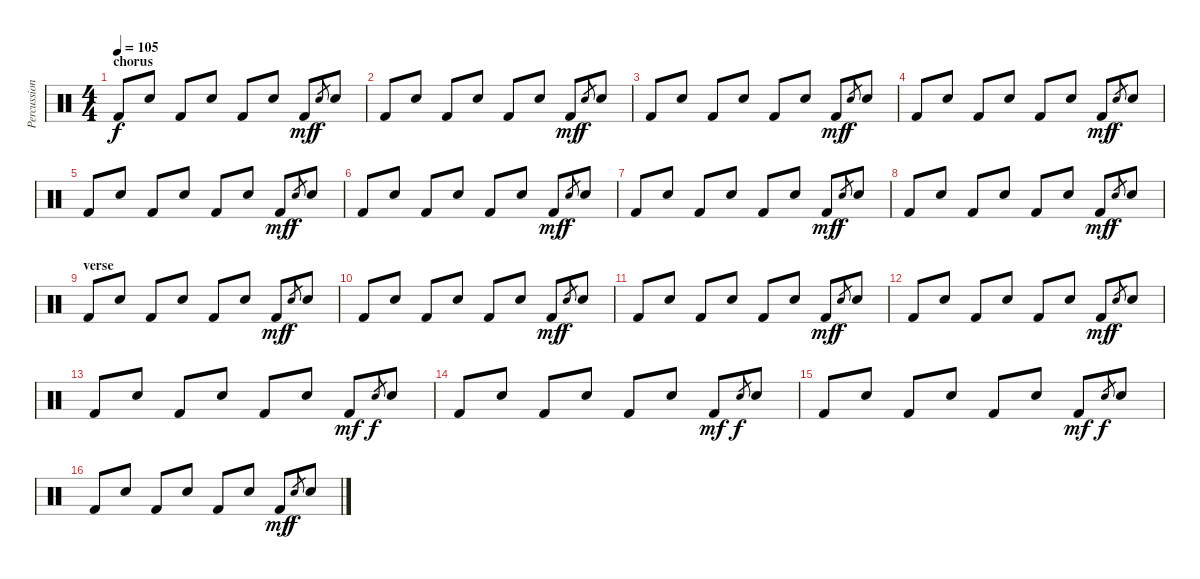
\track ("Percussion" "Percussion") {instrument percussion}
\staff {score}
\articulation defaults
\ts (4 4)
\section ("" "chorus")
\tempo 105
\clef neutral
\ks c "Kick (hit) 2".8{dy f} "Electric Snare (hit)".8 "Kick (hit) 2".8 "Electric Snare (hit)".8 "Kick (hit) 2".8 "Electric Snare (hit)".8 "Kick (hit) 2".8{dy mf} "Electric Snare (hit)".8{gr dy f} "Electric Snare (hit)".8
|
"Kick (hit) 2".8 "Electric Snare (hit)".8 "Kick (hit) 2".8 "Electric Snare (hit)".8 "Kick (hit) 2".8 "Electric Snare (hit)".8 "Kick (hit) 2".8{dy mf} "Electric Snare (hit)".8{gr dy f} "Electric Snare (hit)".8 |
"Kick (hit) 2".8 "Electric Snare (hit)".8 "Kick (hit) 2".8 "Electric Snare (hit)".8 "Kick (hit) 2".8 "Electric Snare (hit)".8 "Kick (hit) 2".8{dy mf} "Electric Snare (hit)".8{gr dy f} "Electric Snare (hit)".8 |
"Kick (hit) 2".8 "Electric Snare (hit)".8 "Kick (hit) 2".8 "Electric Snare (hit)".8 "Kick (hit) 2".8 "Electric Snare (hit)".8 "Kick (hit) 2".8{dy mf} "Electric Snare (hit)".8{gr dy f} "Electric Snare (hit)".8 |
"Kick (hit) 2".8 "Electric Snare (hit)".8 "Kick (hit) 2".8 "Electric Snare (hit)".8 "Kick (hit) 2".8 "Electric Snare (hit)".8 "Kick (hit) 2".8{dy mf} "Electric Snare (hit)".8{gr dy f} "Electric Snare (hit)".8 |
"Kick (hit) 2".8 "Electric Snare (hit)".8 "Kick (hit) 2".8 "Electric Snare (hit)".8 "Kick (hit) 2".8 "Electric Snare (hit)".8 "Kick (hit) 2".8{dy mf} "Electric Snare (hit)".8{gr dy f} "Electric Snare (hit)".8 |
"Kick (hit) 2".8 "Electric Snare (hit)".8 "Kick (hit) 2".8 "Electric Snare (hit)".8 "Kick (hit) 2".8 "Electric Snare (hit)".8 "Kick (hit) 2".8{dy mf} "Electric Snare (hit)".8{gr dy f} "Electric Snare (hit)".8 |
"Kick (hit) 2".8 "Electric Snare (hit)".8 "Kick (hit) 2".8 "Electric Snare (hit)".8 "Kick (hit) 2".8 "Electric Snare (hit)".8 "Kick (hit) 2".8{dy mf} "Electric Snare (hit)".8{gr dy f} "Electric Snare (hit)".8 |
\section ("" "verse")
"Kick (hit) 2".8 "Electric Snare (hit)".8 "Kick (hit) 2".8 "Electric Snare (hit)".8 "Kick (hit) 2".8 "Electric Snare (hit)".8 "Kick (hit) 2".8{dy mf} "Electric Snare (hit)".8{gr dy f} "Electric Snare (hit)".8 |
"Kick (hit) 2".8 "Electric Snare (hit)".8 "Kick (hit) 2".8 "Electric Snare (hit)".8 "Kick (hit) 2".8 "Electric Snare (hit)".8 "Kick (hit) 2".8{dy mf} "Electric Snare (hit)".8{gr dy f} "Electric Snare (hit)".8 |
"Kick (hit) 2".8 "Electric Snare (hit)".8 "Kick (hit) 2".8 "Electric Snare (hit)".8 "Kick (hit) 2".8 "Electric Snare (hit)".8 "Kick (hit) 2".8{dy mf} "Electric Snare (hit)".8{gr dy f} "Electric Snare (hit)".8 |
"Kick (hit) 2".8 "Electric Snare (hit)".8 "Kick (hit) 2".8 "Electric Snare (hit)".8 "Kick (hit) 2".8 "Electric Snare (hit)".8 "Kick (hit) 2".8{dy mf} "Electric Snare (hit)".8{gr dy f} "Electric Snare (hit)".8 |
"Kick (hit) 2".8 "Electric Snare (hit)".8 "Kick (hit) 2".8 "Electric Snare (hit)".8 "Kick (hit) 2".8 "Electric Snare (hit)".8 "Kick (hit) 2".8{dy mf} "Electric Snare (hit)".8{gr dy f} "Electric Snare (hit)".8 |
"Kick (hit) 2".8 "Electric Snare (hit)".8 "Kick (hit) 2".8 "Electric Snare (hit)".8 "Kick (hit) 2".8 "Electric Snare (hit)".8 "Kick (hit) 2".8{dy mf} "Electric Snare (hit)".8{gr dy f} "Electric Snare (hit)".8 |
"Kick (hit) 2".8 "Electric Snare (hit)".8 "Kick (hit) 2".8 "Electric Snare (hit)".8 "Kick (hit) 2".8 "Electric Snare (hit)".8 "Kick (hit) 2".8{dy mf} "Electric Snare (hit)".8{gr dy f} "Electric Snare (hit)".8 |
"Kick (hit) 2".8 "Electric Snare (hit)".8 "Kick (hit) 2".8 "Electric Snare (hit)".8 "Kick (hit) 2".8 "Electric Snare (hit)".8 "Kick (hit) 2".8{dy mf} "Electric Snare (hit)".8{gr dy f} "Electric Snare (hit)".8
